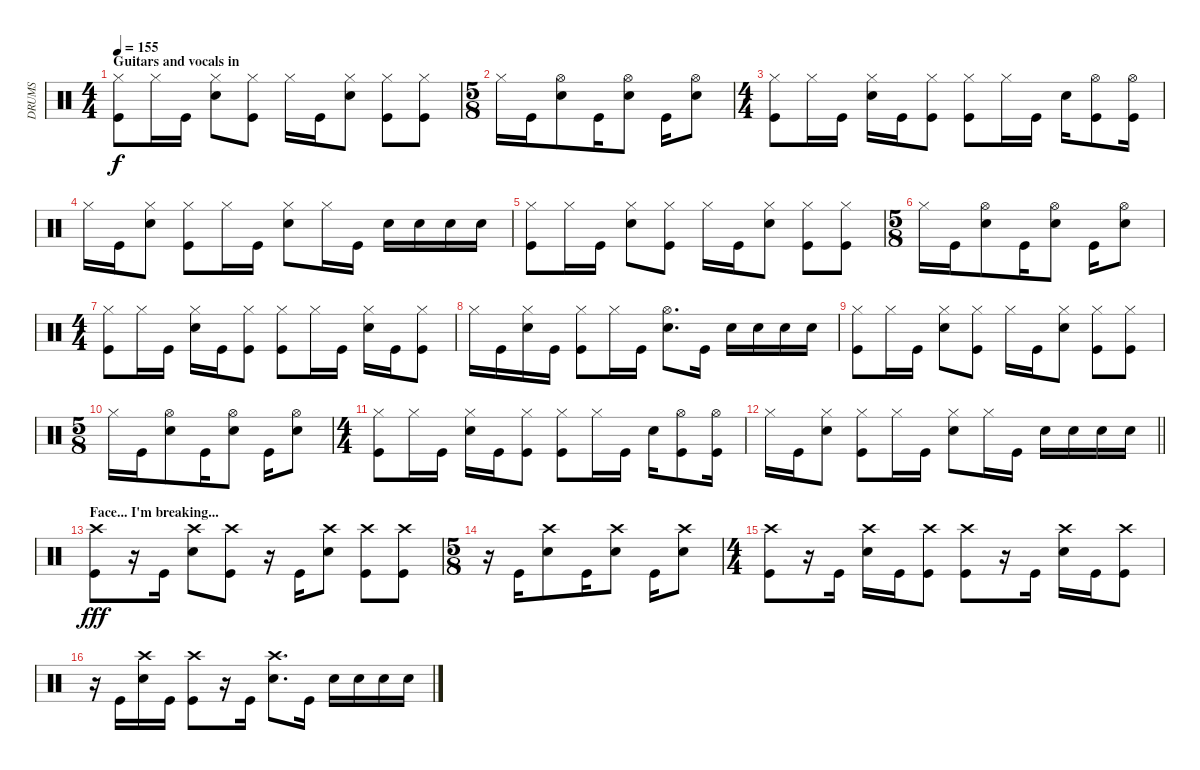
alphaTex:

\track ("DRUMS" "DRUMS") {instrument percussion}
\staff {score}
\articulation defaults
\ts (4 4)
\section ("" "Guitars and vocals in")
\tempo 155
\clef neutral
\ks c
("Kick (hit)" "Hi-Hat (closed)").8{dy f} "Hi-Hat (closed)".16 "Kick (hit)".16 ("Snare (hit) 2" "Hi-Hat (closed)").8 ("Kick (hit)" "Hi-Hat (closed)").8 "Hi-Hat (closed)".16 "Kick (hit)".16 ("Snare (hit) 2" "Hi-Hat (closed)").8 ("Kick (hit)" "Hi-Hat (closed)").8 ("Kick (hit)" "Hi-Hat (closed)").8 |
\ts (5 8)
"Hi-Hat (closed)".16 "Kick (hit)".16 ("Snare (hit) 2" "Hi-Hat (open)").8 "Kick (hit)".16 ("Snare (hit) 2" "Hi-Hat (open)").8 "Kick (hit)".16 ("Snare (hit) 2" "Hi-Hat (open)").8 |
\ts (4 4)
("Kick (hit)" "Hi-Hat (closed)").8 "Hi-Hat (closed)".16 "Kick (hit)".16 ("Snare (hit) 2" "Hi-Hat (closed)").16 "Kick (hit)".16 ("Kick (hit)" "Hi-Hat (closed)").8 ("Kick (hit)" "Hi-Hat (closed)").8 "Hi-Hat (closed)".16 "Kick (hit)".16 "Snare (hit) 2".16 ("Kick (hit)" "Hi-Hat (open)").8 ("Kick (hit)" "Hi-Hat (open)").16 |
"Hi-Hat (closed)".16 "Kick (hit)".16 ("Snare (hit) 2" "Hi-Hat (closed)").8 ("Kick (hit)" "Hi-Hat (closed)").8 "Hi-Hat (closed)".16 "Kick (hit)".16 ("Snare (hit) 2" "Hi-Hat (closed)").8 "Hi-Hat (closed)".16 "Kick (hit)".16 "Snare (hit) 2".16 "Snare (hit) 2".16 "Snare (hit) 2".16 "Snare (hit) 2".16 |
("Kick (hit)" "Hi-Hat (closed)").8 "Hi-Hat (closed)".16 "Kick (hit)".16 ("Snare (hit) 2" "Hi-Hat (closed)").8 ("Kick (hit)" "Hi-Hat (closed)").8 "Hi-Hat (closed)".16 "Kick (hit)".16 ("Snare (hit) 2" "Hi-Hat (closed)").8 ("Kick (hit)" "Hi-Hat (closed)").8 ("Kick (hit)" "Hi-Hat (closed)").8 |
\ts (5 8)
"Hi-Hat (closed)".16 "Kick (hit)".16 ("Snare (hit) 2" "Hi-Hat (open)").8 "Kick (hit)".16 ("Snare (hit) 2" "Hi-Hat (open)").8 "Kick (hit)".16 ("Snare (hit) 2" "Hi-Hat (open)").8 |
\ts (4 4)
("Kick (hit)" "Hi-Hat (closed)").8 "Hi-Hat (closed)".16 "Kick (hit)".16 ("Snare (hit) 2" "Hi-Hat (closed)").16 "Kick (hit)".16 ("Kick (hit)" "Hi-Hat (closed)").8 ("Kick (hit)" "Hi-Hat (closed)").8 "Hi-Hat (closed)".16 "Kick (hit)".16 ("Snare (hit) 2" "Hi-Hat (closed)").16 "Kick (hit)".16 ("Kick (hit)" "Hi-Hat (closed)").8 |
"Hi-Hat (closed)".16 "Kick (hit)".16 ("Snare (hit) 2" "Hi-Hat (closed)").16 "Kick (hit)".16 ("Kick (hit)" "Hi-Hat (closed)").8 "Hi-Hat (closed)".16 "Kick (hit)".16 ("Snare (hit) 2" "Hi-Hat (open)").8{d} "Kick (hit)".16 "Snare (hit) 2".16 "Snare (hit) 2".16 "Snare (hit) 2".16 "Snare (hit) 2".16 |
("Kick (hit)" "Hi-Hat (closed)").8 "Hi-Hat (closed)".16 "Kick (hit)".16 ("Snare (hit) 2" "Hi-Hat (closed)").8 ("Kick (hit)" "Hi-Hat (closed)").8 "Hi-Hat (closed)".16 "Kick (hit)".16 ("Snare (hit) 2" "Hi-Hat (closed)").8 ("Kick (hit)" "Hi-Hat (closed)").8 ("Kick (hit)" "Hi-Hat (closed)").8 |
\ts (5 8)
"Hi-Hat (closed)".16 "Kick (hit)".16 ("Snare (hit) 2" "Hi-Hat (open)").8 "Kick (hit)".16 ("Snare (hit) 2" "Hi-Hat (open)").8 "Kick (hit)".16 ("Snare (hit) 2" "Hi-Hat (open)").8 |
\ts (4 4)
("Kick (hit)" "Hi-Hat (closed)").8 "Hi-Hat (closed)".16 "Kick (hit)".16 ("Snare (hit) 2" "Hi-Hat (closed)").16 "Kick (hit)".16 ("Kick (hit)" "Hi-Hat (closed)").8 ("Kick (hit)" "Hi-Hat (closed)").8 "Hi-Hat (closed)".16 "Kick (hit)".16 "Snare (hit) 2".16 ("Kick (hit)" "Hi-Hat (open)").8 ("Kick (hit)" "Hi-Hat (open)").16 |
\barLineRight lightlight "Hi-Hat (closed)".16 "Kick (hit)".16
("Snare (hit) 2" "Hi-Hat (closed)").8 ("Kick (hit)" "Hi-Hat (closed)").8 "Hi-Hat (closed)".16 "Kick (hit)".16 ("Snare (hit) 2" "Hi-Hat (closed)").8 "Hi-Hat (closed)".16 "Kick (hit)".16 "Snare (hit) 2".16 "Snare (hit) 2".16 "Snare (hit) 2".16 "Snare (hit) 2".16 |
\section ("" "Face... I'm breaking...")
("Kick (hit)" "Crash high (hit)").8{dy fff} r.16 "Kick (hit)".16 ("Snare (hit) 2" "Crash high (hit)").8 ("Kick (hit)" "Crash high (hit)").8 r.16 "Kick (hit)".16 ("Snare (hit) 2" "Crash high (hit)").8 ("Kick (hit)" "Crash high (hit)").8 ("Kick (hit)" "Crash high (hit)").8 |
\ts (5 8)
r.16 "Kick (hit)".16 ("Snare (hit) 2" "Crash high (hit)").8 "Kick (hit)".16 ("Snare (hit) 2" "Crash high (hit)").8 "Kick (hit)".16 ("Snare (hit) 2" "Crash high (hit)").8 |
\ts (4 4)
("Kick (hit)" "Crash high (hit)").8 r.16 "Kick (hit)".16 ("Snare (hit) 2" "Crash high (hit)").16 "Kick (hit)".16 ("Kick (hit)" "Crash high (hit)").8 ("Kick (hit)" "Crash high (hit)").8 r.16 "Kick (hit)".16 ("Snare (hit) 2" "Crash high (hit)").16 "Kick (hit)".16 ("Kick (hit)" "Crash high (hit)").8 |
r.16 "Kick (hit)".16 ("Snare (hit) 2" "Crash high (hit)").16 "Kick (hit)".16 ("Kick (hit)" "Crash high (hit)").8 r.16 "Kick (hit)".16 ("Snare (hit) 2" "Crash high (hit)").8{d} "Kick (hit)".16 "Snare (hit) 2".16 "Snare (hit) 2".16 "Snare (hit) 2".16 "Snare (hit) 2".16
